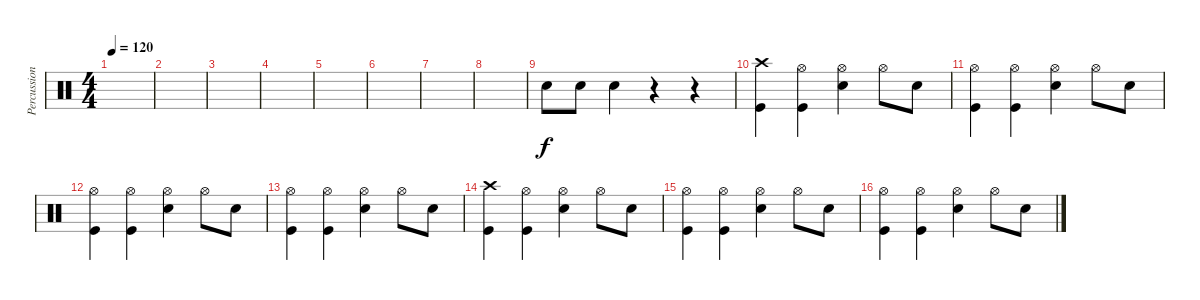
\track ("Percussions" "Percussion") {instrument percussion}
\staff {score}
\articulation defaults
\ts (4 4)
\tempo 120
\clef neutral
\ks c
|
|
|
|
|
|
|
|
"Snare (hit) 2".8 "Snare (hit) 2".8 "Snare (hit) 2".4 r.4 r.4 |
("Crash high (hit)" "Kick (hit)").4 ("Hi-Hat (open)" "Kick (hit)").4 ("Hi-Hat (open)" "Snare (hit) 2").4 "Hi-Hat (open)".8 "Snare (hit) 2".8 |
("Hi-Hat (open)" "Kick (hit)").4 ("Hi-Hat (open)" "Kick (hit)").4 ("Hi-Hat (open)" "Snare (hit) 2").4 "Hi-Hat (open)".8 "Snare (hit) 2".8 |
("Hi-Hat (open)" "Kick (hit)").4 ("Hi-Hat (open)" "Kick (hit)").4 ("Hi-Hat (open)" "Snare (hit) 2").4 "Hi-Hat (open)".8 "Snare (hit) 2".8 |
("Hi-Hat (open)" "Kick (hit)").4 ("Hi-Hat (open)" "Kick (hit)").4 ("Hi-Hat (open)" "Snare (hit) 2").4 "Hi-Hat (open)".8 "Snare (hit) 2".8 |
("Crash high (hit)" "Kick (hit)").4 ("Hi-Hat (open)" "Kick (hit)").4 ("Hi-Hat (open)" "Snare (hit) 2").4 "Hi-Hat (open)".8 "Snare (hit) 2".8 |
("Hi-Hat (open)" "Kick (hit)").4 ("Hi-Hat (open)" "Kick (hit)").4 ("Hi-Hat (open)" "Snare (hit) 2").4 "Hi-Hat (open)".8 "Snare (hit) 2".8 |
("Hi-Hat (open)" "Kick (hit)").4 ("Hi-Hat (open)" "Kick (hit)").4 ("Hi-Hat (open)" "Snare (hit) 2").4 "Hi-Hat (open)".8 "Snare (hit) 2".8
